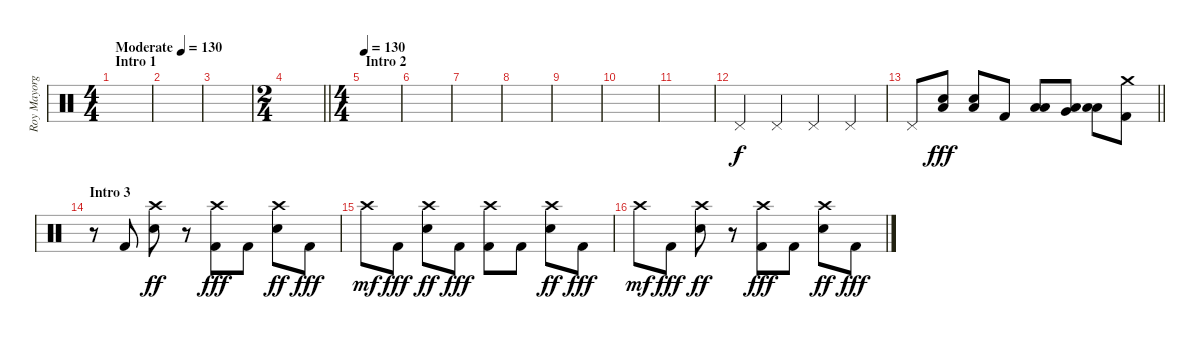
\track ("Roy Mayorga" "Roy Mayorg") {instrument percussion}
\staff {score}
\articulation defaults
\ts (4 4)
\section ("" "Intro 1")
\tempo (130 "Moderate")
\tempo 70
\tempo (130 "Moderate")
\clef neutral
\ks c
|
|
|
\ts (2 4)
\barLineRight lightlight
|
\ts (4 4)
\section ("" "Intro 2")
\tempo 130
|
|
|
|
|
|
|
"Pedal Hi-Hat (hit)".4 "Pedal Hi-Hat (hit)".4 "Pedal Hi-Hat (hit)".4 "Pedal Hi-Hat (hit)".4 |
\barLineRight lightlight "Pedal Hi-Hat (hit)".8
("Electric Snare (hit)" "Low Floor Tom (hit)").8{dy fff} ("Electric Snare (hit)" "Low Floor Tom (hit)").8 "Kick (hit) 2".8 ("Low Tom (hit)" "Low Floor Tom (hit)").8 ("Very Low Tom (hit)" "Low Floor Tom (hit)").8 ("Low Floor Tom (hit)" "Low Floor Tom (hit)").8 ("Crash medium (hit)" "Kick (hit) 2").8 |
\section ("" "Intro 3")
r.8 "Kick (hit) 2".8 ("Crash high (hit)" "Electric Snare (hit)").8{dy ff} r.8 ("Crash high (hit)" "Kick (hit) 2").8{dy fff} "Kick (hit) 2".8 ("Crash high (hit)" "Electric Snare (hit)").8{dy ff} "Kick (hit) 2".8{dy fff} |
"Crash high (hit)".8{dy mf} "Kick (hit) 2".8{dy fff} ("Crash high (hit)" "Electric Snare (hit)").8{dy ff} "Kick (hit) 2".8{dy fff} ("Crash high (hit)" "Kick (hit) 2").8 "Kick (hit) 2".8 ("Crash high (hit)" "Electric Snare (hit)").8{dy ff} "Kick (hit) 2".8{dy fff} |
"Crash high (hit)".8{dy mf} "Kick (hit) 2".8{dy fff} ("Crash high (hit)" "Electric Snare (hit)").8{dy ff} r.8 ("Crash high (hit)" "Kick (hit) 2").8{dy fff} "Kick (hit) 2".8 ("Crash high (hit)" "Electric Snare (hit)").8{dy ff} "Kick (hit) 2".8{dy fff}
